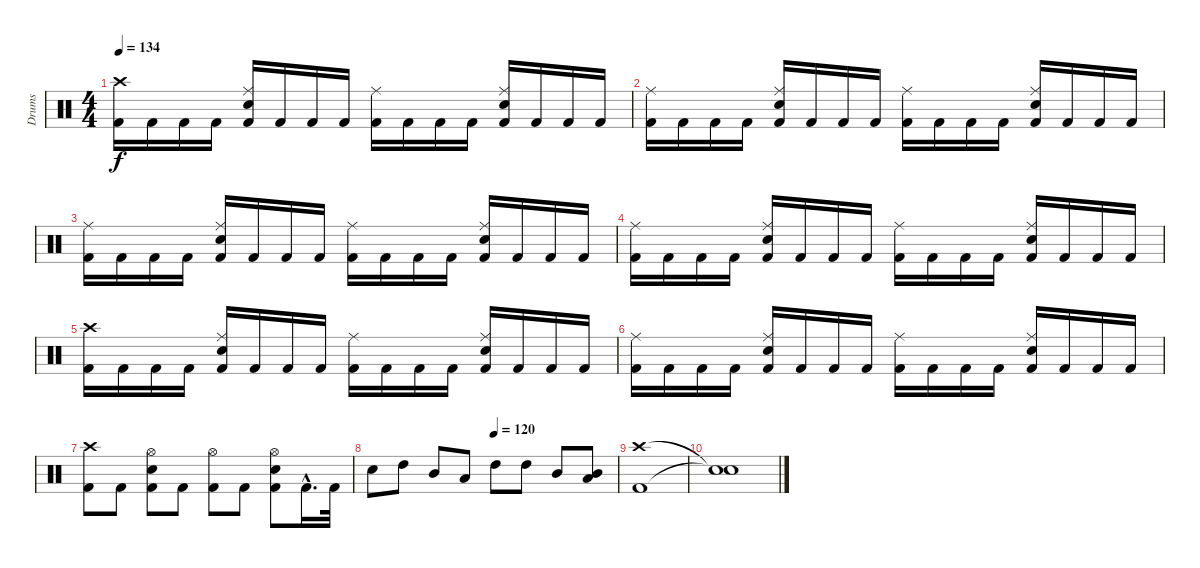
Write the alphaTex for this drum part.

\track ("Drums" "Drums") {instrument percussion}
\staff {score}
\articulation defaults
\ts (4 4)
\section ("" "")
\tempo 134
\clef neutral
\ks c
("Crash high (hit)" "Kick (hit) 2").16{dy f} "Kick (hit) 2".16 "Kick (hit) 2".16 "Kick (hit) 2".16 ("Ride (middle)" "Snare (hit) 2" "Kick (hit) 2").16 "Kick (hit) 2".16 "Kick (hit) 2".16 "Kick (hit) 2".16 ("Ride (middle)" "Kick (hit) 2").16 "Kick (hit) 2".16 "Kick (hit) 2".16 "Kick (hit) 2".16 ("Ride (middle)" "Snare (hit) 2" "Kick (hit) 2").16 "Kick (hit) 2".16 "Kick (hit) 2".16 "Kick (hit) 2".16 |
("Ride (middle)" "Kick (hit) 2").16 "Kick (hit) 2".16 "Kick (hit) 2".16 "Kick (hit) 2".16 ("Ride (middle)" "Snare (hit) 2" "Kick (hit) 2").16 "Kick (hit) 2".16 "Kick (hit) 2".16 "Kick (hit) 2".16 ("Ride (middle)" "Kick (hit) 2").16 "Kick (hit) 2".16 "Kick (hit) 2".16 "Kick (hit) 2".16 ("Ride (middle)" "Snare (hit) 2" "Kick (hit) 2").16 "Kick (hit) 2".16 "Kick (hit) 2".16 "Kick (hit) 2".16 |
("Ride (middle)" "Kick (hit) 2").16 "Kick (hit) 2".16 "Kick (hit) 2".16 "Kick (hit) 2".16 ("Ride (middle)" "Snare (hit) 2" "Kick (hit) 2").16 "Kick (hit) 2".16 "Kick (hit) 2".16 "Kick (hit) 2".16 ("Ride (middle)" "Kick (hit) 2").16 "Kick (hit) 2".16 "Kick (hit) 2".16 "Kick (hit) 2".16 ("Ride (middle)" "Snare (hit) 2" "Kick (hit) 2").16 "Kick (hit) 2".16 "Kick (hit) 2".16 "Kick (hit) 2".16 |
("Ride (middle)" "Kick (hit) 2").16 "Kick (hit) 2".16 "Kick (hit) 2".16 "Kick (hit) 2".16 ("Ride (middle)" "Snare (hit) 2" "Kick (hit) 2").16 "Kick (hit) 2".16 "Kick (hit) 2".16 "Kick (hit) 2".16 ("Ride (middle)" "Kick (hit) 2").16 "Kick (hit) 2".16 "Kick (hit) 2".16 "Kick (hit) 2".16 ("Ride (middle)" "Snare (hit) 2" "Kick (hit) 2").16 "Kick (hit) 2".16 "Kick (hit) 2".16 "Kick (hit) 2".16 |
("Crash high (hit)" "Kick (hit) 2").16 "Kick (hit) 2".16 "Kick (hit) 2".16 "Kick (hit) 2".16 ("Ride (middle)" "Snare (hit) 2" "Kick (hit) 2").16 "Kick (hit) 2".16 "Kick (hit) 2".16 "Kick (hit) 2".16 ("Ride (middle)" "Kick (hit) 2").16 "Kick (hit) 2".16 "Kick (hit) 2".16 "Kick (hit) 2".16 ("Ride (middle)" "Snare (hit) 2" "Kick (hit) 2").16 "Kick (hit) 2".16 "Kick (hit) 2".16 "Kick (hit) 2".16 |
("Ride (middle)" "Kick (hit) 2").16 "Kick (hit) 2".16 "Kick (hit) 2".16 "Kick (hit) 2".16 ("Ride (middle)" "Snare (hit) 2" "Kick (hit) 2").16 "Kick (hit) 2".16 "Kick (hit) 2".16 "Kick (hit) 2".16 ("Ride (middle)" "Kick (hit) 2").16 "Kick (hit) 2".16 "Kick (hit) 2".16 "Kick (hit) 2".16 ("Ride (middle)" "Snare (hit) 2" "Kick (hit) 2").16 "Kick (hit) 2".16 "Kick (hit) 2".16 "Kick (hit) 2".16 |
("Crash high (hit)" "Kick (hit) 2").8 "Kick (hit) 2".8 ("Hi-Hat (open)" "Snare (hit) 2" "Kick (hit) 2").8 "Kick (hit) 2".8 ("Hi-Hat (open)" "Kick (hit) 2").8 "Kick (hit) 2".8 ("Hi-Hat (open)" "Snare (hit) 2" "Kick (hit) 2").8 "Kick (hit) 2"{hac}.16{d} "Kick (hit) 2".32 |
\tempo (120 0.5)
"Snare (hit) 2".8 "High Tom (hit)".8 "Mid Tom (hit)".8 "Low Tom (hit)".8 "High Tom (hit)".8 "High Tom (hit)".8 "Mid Tom (hit)".8 ("Mid Tom (hit)" "Low Tom (hit)").8 |
("Crash high (hit)" "Kick (hit) 2").1 |
("Snare (hit)"{t} "Snare (hit)"{t}).1
